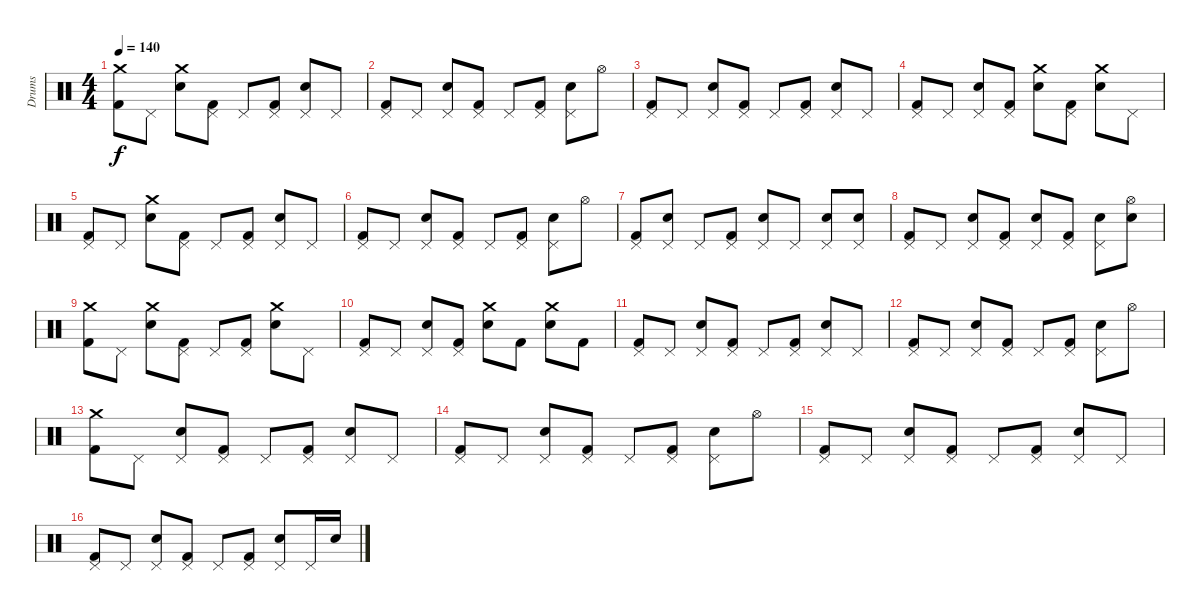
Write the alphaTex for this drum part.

\track ("Drums" "Drums") {instrument percussion}
\staff {score}
\articulation defaults
\ts (4 4)
\tempo 140
\clef neutral
\ks c
("Crash medium (hit)" "Kick (hit) 2").8{dy f} "Pedal Hi-Hat (hit)".8 ("Crash medium (hit)" "Electric Snare (hit)").8 ("Pedal Hi-Hat (hit)" "Kick (hit) 2").8 "Pedal Hi-Hat (hit)".8 ("Pedal Hi-Hat (hit)" "Kick (hit) 2").8 ("Pedal Hi-Hat (hit)" "Electric Snare (hit)").8 "Pedal Hi-Hat (hit)".8 |
("Pedal Hi-Hat (hit)" "Kick (hit) 2").8 "Pedal Hi-Hat (hit)".8 ("Pedal Hi-Hat (hit)" "Electric Snare (hit)").8 ("Pedal Hi-Hat (hit)" "Kick (hit) 2").8 "Pedal Hi-Hat (hit)".8 ("Pedal Hi-Hat (hit)" "Kick (hit) 2").8 ("Pedal Hi-Hat (hit)" "Electric Snare (hit)").8 "Hi-Hat (open)".8 |
("Pedal Hi-Hat (hit)" "Kick (hit) 2").8 "Pedal Hi-Hat (hit)".8 ("Pedal Hi-Hat (hit)" "Electric Snare (hit)").8 ("Pedal Hi-Hat (hit)" "Kick (hit) 2").8 "Pedal Hi-Hat (hit)".8 ("Pedal Hi-Hat (hit)" "Kick (hit) 2").8 ("Pedal Hi-Hat (hit)" "Electric Snare (hit)").8 "Pedal Hi-Hat (hit)".8 |
("Pedal Hi-Hat (hit)" "Kick (hit) 2").8 "Pedal Hi-Hat (hit)".8 ("Pedal Hi-Hat (hit)" "Electric Snare (hit)").8 ("Pedal Hi-Hat (hit)" "Kick (hit) 2").8 ("Crash medium (hit)" "Electric Snare (hit)").8 ("Pedal Hi-Hat (hit)" "Kick (hit) 2").8 ("Crash medium (hit)" "Electric Snare (hit)").8 "Pedal Hi-Hat (hit)".8 |
("Pedal Hi-Hat (hit)" "Kick (hit) 2").8 "Pedal Hi-Hat (hit)".8 ("Crash medium (hit)" "Electric Snare (hit)").8 ("Pedal Hi-Hat (hit)" "Kick (hit) 2").8 "Pedal Hi-Hat (hit)".8 ("Pedal Hi-Hat (hit)" "Kick (hit) 2").8 ("Pedal Hi-Hat (hit)" "Electric Snare (hit)").8 "Pedal Hi-Hat (hit)".8 |
("Pedal Hi-Hat (hit)" "Kick (hit) 2").8 "Pedal Hi-Hat (hit)".8 ("Pedal Hi-Hat (hit)" "Electric Snare (hit)").8 ("Pedal Hi-Hat (hit)" "Kick (hit) 2").8 "Pedal Hi-Hat (hit)".8 ("Pedal Hi-Hat (hit)" "Kick (hit) 2").8 ("Pedal Hi-Hat (hit)" "Electric Snare (hit)").8 "Hi-Hat (open)".8 |
("Pedal Hi-Hat (hit)" "Kick (hit) 2").8 ("Pedal Hi-Hat (hit)" "Electric Snare (hit)").8 "Pedal Hi-Hat (hit)".8 ("Pedal Hi-Hat (hit)" "Kick (hit) 2").8 ("Pedal Hi-Hat (hit)" "Electric Snare (hit)").8 "Pedal Hi-Hat (hit)".8 ("Pedal Hi-Hat (hit)" "Electric Snare (hit)").8 ("Pedal Hi-Hat (hit)" "Electric Snare (hit)").8 |
("Pedal Hi-Hat (hit)" "Kick (hit) 2").8 "Pedal Hi-Hat (hit)".8 ("Pedal Hi-Hat (hit)" "Electric Snare (hit)").8 ("Pedal Hi-Hat (hit)" "Kick (hit) 2").8 ("Pedal Hi-Hat (hit)" "Electric Snare (hit)").8 ("Pedal Hi-Hat (hit)" "Kick (hit) 2").8 ("Pedal Hi-Hat (hit)" "Electric Snare (hit)").8 ("Hi-Hat (open)" "Electric Snare (hit)").8 |
("Crash medium (hit)" "Kick (hit) 2").8 "Pedal Hi-Hat (hit)".8 ("Crash medium (hit)" "Electric Snare (hit)").8 ("Pedal Hi-Hat (hit)" "Kick (hit) 2").8 "Pedal Hi-Hat (hit)".8 ("Pedal Hi-Hat (hit)" "Kick (hit) 2").8 ("Crash medium (hit)" "Electric Snare (hit)").8 "Pedal Hi-Hat (hit)".8 |
("Pedal Hi-Hat (hit)" "Kick (hit) 2").8 "Pedal Hi-Hat (hit)".8 ("Pedal Hi-Hat (hit)" "Electric Snare (hit)").8 ("Pedal Hi-Hat (hit)" "Kick (hit) 2").8 ("Crash medium (hit)" "Electric Snare (hit)").8 "Kick (hit) 2".8 ("Crash medium (hit)" "Electric Snare (hit)").8 "Kick (hit) 2".8 |
("Pedal Hi-Hat (hit)" "Kick (hit) 2").8 "Pedal Hi-Hat (hit)".8 ("Pedal Hi-Hat (hit)" "Electric Snare (hit)").8 ("Pedal Hi-Hat (hit)" "Kick (hit) 2").8 "Pedal Hi-Hat (hit)".8 ("Pedal Hi-Hat (hit)" "Kick (hit) 2").8 ("Pedal Hi-Hat (hit)" "Electric Snare (hit)").8 "Pedal Hi-Hat (hit)".8 |
("Pedal Hi-Hat (hit)" "Kick (hit) 2").8 "Pedal Hi-Hat (hit)".8 ("Pedal Hi-Hat (hit)" "Electric Snare (hit)").8 ("Pedal Hi-Hat (hit)" "Kick (hit) 2").8 "Pedal Hi-Hat (hit)".8 ("Pedal Hi-Hat (hit)" "Kick (hit) 2").8 ("Pedal Hi-Hat (hit)" "Electric Snare (hit)").8 "Hi-Hat (open)".8 |
("Crash medium (hit)" "Kick (hit) 2").8 "Pedal Hi-Hat (hit)".8 ("Pedal Hi-Hat (hit)" "Electric Snare (hit)").8 ("Pedal Hi-Hat (hit)" "Kick (hit) 2").8 "Pedal Hi-Hat (hit)".8 ("Pedal Hi-Hat (hit)" "Kick (hit) 2").8 ("Pedal Hi-Hat (hit)" "Electric Snare (hit)").8 "Pedal Hi-Hat (hit)".8 |
("Pedal Hi-Hat (hit)" "Kick (hit) 2").8 "Pedal Hi-Hat (hit)".8 ("Pedal Hi-Hat (hit)" "Electric Snare (hit)").8 ("Pedal Hi-Hat (hit)" "Kick (hit) 2").8 "Pedal Hi-Hat (hit)".8 ("Pedal Hi-Hat (hit)" "Kick (hit) 2").8 ("Pedal Hi-Hat (hit)" "Electric Snare (hit)").8 "Hi-Hat (open)".8 |
("Pedal Hi-Hat (hit)" "Kick (hit) 2").8 "Pedal Hi-Hat (hit)".8 ("Pedal Hi-Hat (hit)" "Electric Snare (hit)").8 ("Pedal Hi-Hat (hit)" "Kick (hit) 2").8 "Pedal Hi-Hat (hit)".8 ("Pedal Hi-Hat (hit)" "Kick (hit) 2").8 ("Pedal Hi-Hat (hit)" "Electric Snare (hit)").8 "Pedal Hi-Hat (hit)".8 |
("Pedal Hi-Hat (hit)" "Kick (hit) 2").8 "Pedal Hi-Hat (hit)".8 ("Pedal Hi-Hat (hit)" "Electric Snare (hit)").8 ("Pedal Hi-Hat (hit)" "Kick (hit) 2").8 "Pedal Hi-Hat (hit)".8 ("Pedal Hi-Hat (hit)" "Kick (hit) 2").8 ("Pedal Hi-Hat (hit)" "Electric Snare (hit)").8 "Pedal Hi-Hat (hit)".16 "Electric Snare (hit)".16
